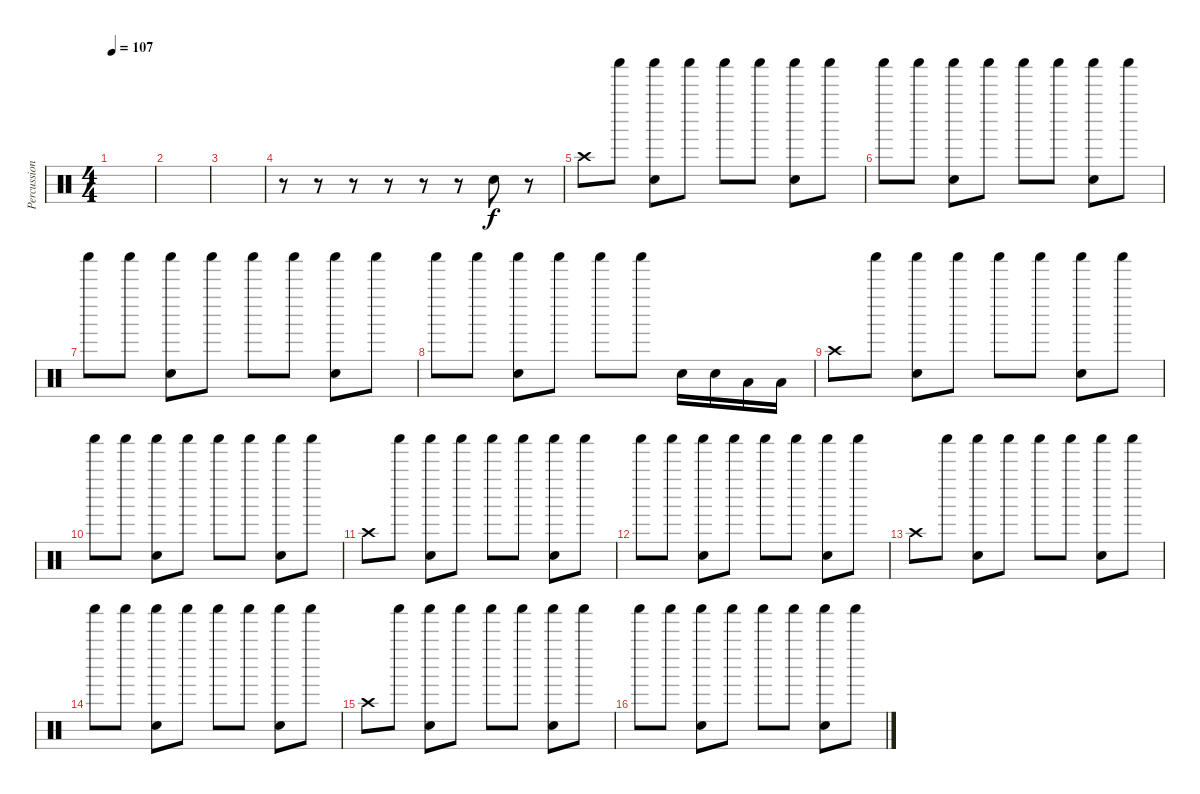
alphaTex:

\track ("Percussion" "Percussion") {instrument percussion}
\staff {score}
\articulation defaults
\ts (4 4)
\tempo 107
\clef neutral
\ks c
|
|
|
r.8 r.8 r.8 r.8 r.8 r.8 "Snare (hit) 2".8 r.8 |
"Crash high (hit)".8 "Shaker (hit)".8 ("Shaker (hit)" "Snare (hit) 2").8 "Shaker (hit)".8 "Shaker (hit)".8 "Shaker (hit)".8 ("Shaker (hit)" "Snare (hit) 2").8 "Shaker (hit)".8 |
"Shaker (hit)".8 "Shaker (hit)".8 ("Shaker (hit)" "Snare (hit) 2").8 "Shaker (hit)".8 "Shaker (hit)".8 "Shaker (hit)".8 ("Shaker (hit)" "Snare (hit) 2").8 "Shaker (hit)".8 |
"Shaker (hit)".8 "Shaker (hit)".8 ("Shaker (hit)" "Snare (hit) 2").8 "Shaker (hit)".8 "Shaker (hit)".8 "Shaker (hit)".8 ("Shaker (hit)" "Snare (hit) 2").8 "Shaker (hit)".8 |
"Shaker (hit)".8 "Shaker (hit)".8 ("Shaker (hit)" "Snare (hit) 2").8 "Shaker (hit)".8 "Shaker (hit)".8 "Shaker (hit)".8 "Snare (hit) 2".16 "Snare (hit) 2".16 "Low Tom (hit)".16 "Low Tom (hit)".16 |
"Crash high (hit)".8 "Shaker (hit)".8 ("Shaker (hit)" "Snare (hit) 2").8 "Shaker (hit)".8 "Shaker (hit)".8 "Shaker (hit)".8 ("Shaker (hit)" "Snare (hit) 2").8 "Shaker (hit)".8 |
"Shaker (hit)".8 "Shaker (hit)".8 ("Shaker (hit)" "Snare (hit) 2").8 "Shaker (hit)".8 "Shaker (hit)".8 "Shaker (hit)".8 ("Shaker (hit)" "Snare (hit) 2").8 "Shaker (hit)".8 |
"Crash high (hit)".8 "Shaker (hit)".8 ("Shaker (hit)" "Snare (hit) 2").8 "Shaker (hit)".8 "Shaker (hit)".8 "Shaker (hit)".8 ("Shaker (hit)" "Snare (hit) 2").8 "Shaker (hit)".8 |
"Shaker (hit)".8 "Shaker (hit)".8 ("Shaker (hit)" "Snare (hit) 2").8 "Shaker (hit)".8 "Shaker (hit)".8 "Shaker (hit)".8 ("Shaker (hit)" "Snare (hit) 2").8 "Shaker (hit)".8 |
"Crash high (hit)".8 "Shaker (hit)".8 ("Shaker (hit)" "Snare (hit) 2").8 "Shaker (hit)".8 "Shaker (hit)".8 "Shaker (hit)".8 ("Shaker (hit)" "Snare (hit) 2").8 "Shaker (hit)".8 |
"Shaker (hit)".8 "Shaker (hit)".8 ("Shaker (hit)" "Snare (hit) 2").8 "Shaker (hit)".8 "Shaker (hit)".8 "Shaker (hit)".8 ("Shaker (hit)" "Snare (hit) 2").8 "Shaker (hit)".8 |
"Crash high (hit)".8 "Shaker (hit)".8 ("Shaker (hit)" "Snare (hit) 2").8 "Shaker (hit)".8 "Shaker (hit)".8 "Shaker (hit)".8 ("Shaker (hit)" "Snare (hit) 2").8 "Shaker (hit)".8 |
"Shaker (hit)".8 "Shaker (hit)".8 ("Shaker (hit)" "Snare (hit) 2").8 "Shaker (hit)".8 "Shaker (hit)".8 "Shaker (hit)".8 ("Shaker (hit)" "Snare (hit) 2").8 "Shaker (hit)".8
